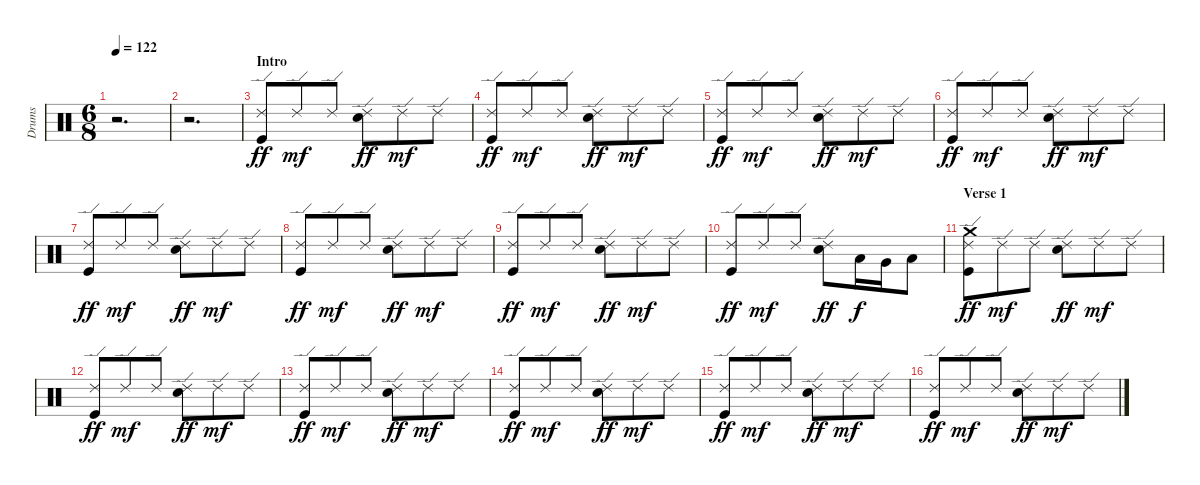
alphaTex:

\track ("Drums" "Drums") {instrument percussion}
\staff {score}
\articulation defaults
\ts (6 8)
\tempo 122
\clef neutral
\ks c
r.2{d dy ff} |
r.2{d} |
\section ("" "Intro")
("Ride (edge) 2" "Kick (hit)").8 "Ride (edge) 2".8{dy mf} "Ride (edge) 2".8 ("Ride (edge) 2" "Electric Snare (hit)").8{dy ff} "Ride (edge) 2".8{dy mf} "Ride (edge) 2".8 |
("Ride (edge) 2" "Kick (hit)").8{dy ff} "Ride (edge) 2".8{dy mf} "Ride (edge) 2".8 ("Ride (edge) 2" "Electric Snare (hit)").8{dy ff} "Ride (edge) 2".8{dy mf} "Ride (edge) 2".8 |
("Ride (edge) 2" "Kick (hit)").8{dy ff} "Ride (edge) 2".8{dy mf} "Ride (edge) 2".8 ("Ride (edge) 2" "Electric Snare (hit)").8{dy ff} "Ride (edge) 2".8{dy mf} "Ride (edge) 2".8 |
("Ride (edge) 2" "Kick (hit)").8{dy ff} "Ride (edge) 2".8{dy mf} "Ride (edge) 2".8 ("Ride (edge) 2" "Electric Snare (hit)").8{dy ff} "Ride (edge) 2".8{dy mf} "Ride (edge) 2".8 |
("Ride (edge) 2" "Kick (hit)").8{dy ff} "Ride (edge) 2".8{dy mf} "Ride (edge) 2".8 ("Ride (edge) 2" "Electric Snare (hit)").8{dy ff} "Ride (edge) 2".8{dy mf} "Ride (edge) 2".8 |
("Ride (edge) 2" "Kick (hit)").8{dy ff} "Ride (edge) 2".8{dy mf} "Ride (edge) 2".8 ("Ride (edge) 2" "Electric Snare (hit)").8{dy ff} "Ride (edge) 2".8{dy mf} "Ride (edge) 2".8 |
("Ride (edge) 2" "Kick (hit)").8{dy ff} "Ride (edge) 2".8{dy mf} "Ride (edge) 2".8 ("Ride (edge) 2" "Electric Snare (hit)").8{dy ff} "Ride (edge) 2".8{dy mf} "Ride (edge) 2".8 |
("Ride (edge) 2" "Kick (hit)").8{dy ff} "Ride (edge) 2".8{dy mf} "Ride (edge) 2".8 ("Ride (edge) 2" "Electric Snare (hit)").8{dy ff} "Low Tom (hit)".16{dy f} "Very Low Tom (hit)".16 "Low Floor Tom (hit)".8 |
\section ("" "Verse 1")
("Ride (edge) 2" "Crash medium (hit)" "Kick (hit)").8{dy ff} "Ride (edge) 2".8{dy mf} "Ride (edge) 2".8 ("Ride (edge) 2" "Electric Snare (hit)").8{dy ff} "Ride (edge) 2".8{dy mf} "Ride (edge) 2".8 |
("Ride (edge) 2" "Kick (hit)").8{dy ff} "Ride (edge) 2".8{dy mf} "Ride (edge) 2".8 ("Ride (edge) 2" "Electric Snare (hit)").8{dy ff} "Ride (edge) 2".8{dy mf} "Ride (edge) 2".8 |
("Ride (edge) 2" "Kick (hit)").8{dy ff} "Ride (edge) 2".8{dy mf} "Ride (edge) 2".8 ("Ride (edge) 2" "Electric Snare (hit)").8{dy ff} "Ride (edge) 2".8{dy mf} "Ride (edge) 2".8 |
("Ride (edge) 2" "Kick (hit)").8{dy ff} "Ride (edge) 2".8{dy mf} "Ride (edge) 2".8 ("Ride (edge) 2" "Electric Snare (hit)").8{dy ff} "Ride (edge) 2".8{dy mf} "Ride (edge) 2".8 |
("Ride (edge) 2" "Kick (hit)").8{dy ff} "Ride (edge) 2".8{dy mf} "Ride (edge) 2".8 ("Ride (edge) 2" "Electric Snare (hit)").8{dy ff} "Ride (edge) 2".8{dy mf} "Ride (edge) 2".8 |
("Ride (edge) 2" "Kick (hit)").8{dy ff} "Ride (edge) 2".8{dy mf} "Ride (edge) 2".8 ("Ride (edge) 2" "Electric Snare (hit)").8{dy ff} "Ride (edge) 2".8{dy mf} "Ride (edge) 2".8
